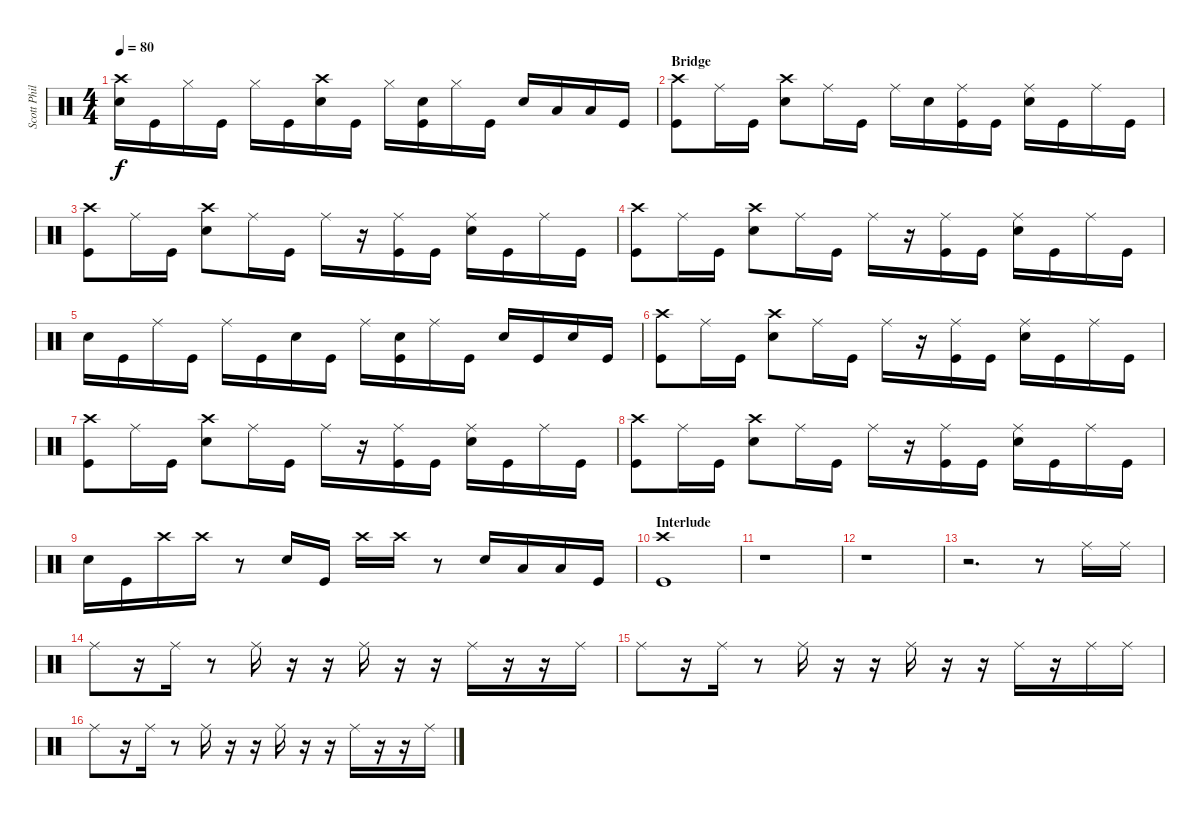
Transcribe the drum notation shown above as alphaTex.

\track ("Scott Phillips" "Scott Phil") {instrument percussion}
\staff {score}
\articulation defaults
\ts (4 4)
\tempo 80
\clef neutral
\ks c
("Crash high (hit)" "Snare (hit) 2").16{dy f} "Kick (hit)".16 "Hi-Hat (closed)".16 "Kick (hit)".16 "Hi-Hat (closed)".16 "Kick (hit)".16 ("Crash high (hit)" "Snare (hit) 2").16 "Kick (hit)".16 "Hi-Hat (closed)".16 ("Snare (hit) 2" "Kick (hit)").16 "Hi-Hat (closed)".16 "Kick (hit)".16 "Snare (hit) 2".16 "Low Tom (hit)".16 "Low Tom (hit)".16 "Kick (hit)".16 |
\section ("" "Bridge")
("Crash high (hit)" "Kick (hit)").8 "Ride (middle)".16 "Kick (hit)".16 ("Crash high (hit)" "Snare (hit) 2").8 "Ride (middle)".16 "Kick (hit)".16 "Ride (middle)".16 "Snare (hit) 2".16 ("Ride (middle)" "Kick (hit)").16 "Kick (hit)".16 ("Ride (middle)" "Snare (hit) 2").16 "Kick (hit)".16 "Ride (middle)".16 "Kick (hit)".16 |
("Crash high (hit)" "Kick (hit)").8 "Ride (middle)".16 "Kick (hit)".16 ("Crash high (hit)" "Snare (hit) 2").8 "Ride (middle)".16 "Kick (hit)".16 "Ride (middle)".16 r.16 ("Ride (middle)" "Kick (hit)").16 "Kick (hit)".16 ("Ride (middle)" "Snare (hit) 2").16 "Kick (hit)".16 "Ride (middle)".16 "Kick (hit)".16 |
("Crash high (hit)" "Kick (hit)").8 "Ride (middle)".16 "Kick (hit)".16 ("Crash high (hit)" "Snare (hit) 2").8 "Ride (middle)".16 "Kick (hit)".16 "Ride (middle)".16 r.16 ("Ride (middle)" "Kick (hit)").16 "Kick (hit)".16 ("Ride (middle)" "Snare (hit) 2").16 "Kick (hit)".16 "Ride (middle)".16 "Kick (hit)".16 |
"Snare (hit) 2".16 "Kick (hit)".16 "Ride (middle)".16 "Kick (hit)".16 "Ride (middle)".16 "Kick (hit)".16 "Snare (hit) 2".16 "Kick (hit)".16 "Ride (middle)".16 ("Snare (hit) 2" "Kick (hit)").16 "Ride (middle)".16 "Kick (hit)".16 "Snare (hit) 2".16 "Kick (hit)".16 "Snare (hit) 2".16 "Kick (hit)".16 |
("Crash high (hit)" "Kick (hit)").8 "Ride (middle)".16 "Kick (hit)".16 ("Crash high (hit)" "Snare (hit) 2").8 "Ride (middle)".16 "Kick (hit)".16 "Ride (middle)".16 r.16 ("Ride (middle)" "Kick (hit)").16 "Kick (hit)".16 ("Ride (middle)" "Snare (hit) 2").16 "Kick (hit)".16 "Ride (middle)".16 "Kick (hit)".16 |
("Crash high (hit)" "Kick (hit)").8 "Ride (middle)".16 "Kick (hit)".16 ("Crash high (hit)" "Snare (hit) 2").8 "Ride (middle)".16 "Kick (hit)".16 "Ride (middle)".16 r.16 ("Ride (middle)" "Kick (hit)").16 "Kick (hit)".16 ("Ride (middle)" "Snare (hit) 2").16 "Kick (hit)".16 "Ride (middle)".16 "Kick (hit)".16 |
("Crash high (hit)" "Kick (hit)").8 "Ride (middle)".16 "Kick (hit)".16 ("Crash high (hit)" "Snare (hit) 2").8 "Ride (middle)".16 "Kick (hit)".16 "Ride (middle)".16 r.16 ("Ride (middle)" "Kick (hit)").16 "Kick (hit)".16 ("Ride (middle)" "Snare (hit) 2").16 "Kick (hit)".16 "Ride (middle)".16 "Kick (hit)".16 |
"Snare (hit) 2".16 "Kick (hit)".16 "Crash high (hit)".16 "Crash high (hit)".16 r.8 "Snare (hit) 2".16 "Kick (hit)".16 "Crash high (hit)".16 "Crash high (hit)".16 r.8 "Snare (hit) 2".16 "Low Tom (hit)".16 "Low Tom (hit)".16 "Kick (hit)".16 |
\section ("" "Interlude")
("Crash high (hit)" "Kick (hit)").1 |
r.1 |
r.1 |
r.2{d} r.8 "Ride (middle)".16 "Ride (middle)".16 |
"Ride (middle)".8 r.16 "Ride (middle)".16 r.8 "Ride (middle)".16 r.16 r.16 "Ride (middle)".16 r.16 r.16 "Ride (middle)".16 r.16 r.16 "Ride (middle)".16 |
"Ride (middle)".8 r.16 "Ride (middle)".16 r.8 "Ride (middle)".16 r.16 r.16 "Ride (middle)".16 r.16 r.16 "Ride (middle)".16 r.16 "Ride (middle)".16 "Ride (middle)".16 |
"Ride (middle)".8 r.16 "Ride (middle)".16 r.8 "Ride (middle)".16 r.16 r.16 "Ride (middle)".16 r.16 r.16 "Ride (middle)".16 r.16 r.16 "Ride (middle)".16
